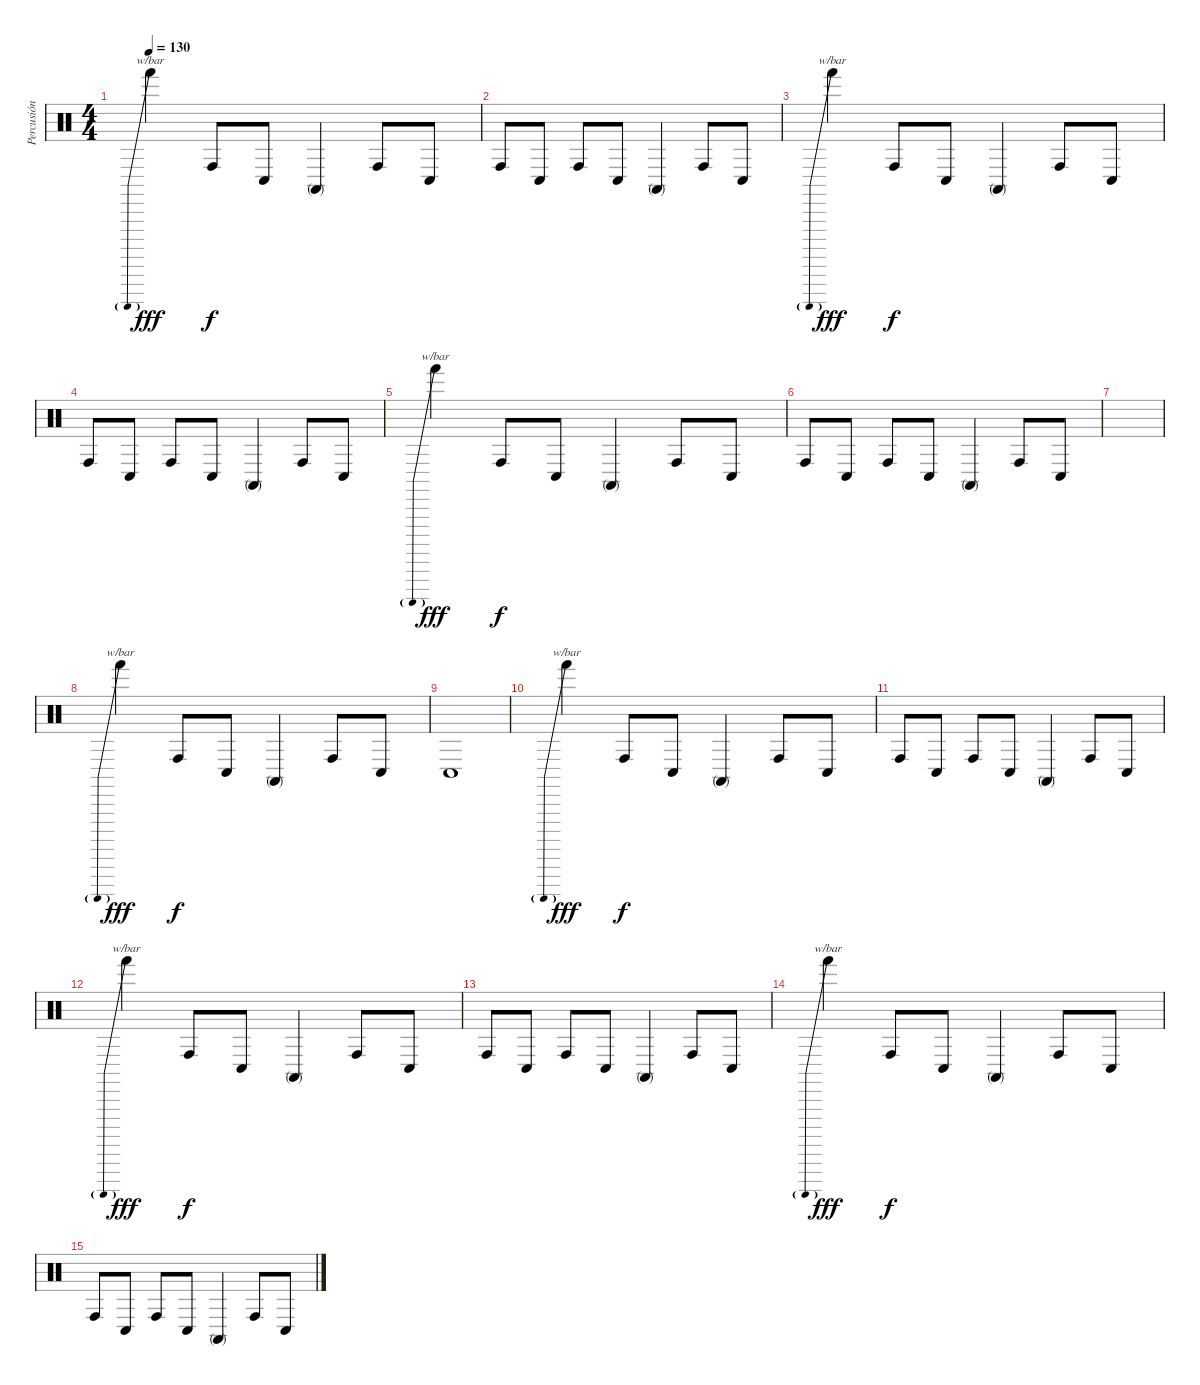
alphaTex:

\track ("Percusión" "Percusión") {instrument percussion}
\staff {score}
\articulation defaults
\ts (4 4)
\tempo 130
\clef neutral
\ks c "Hand (hit)".4{tbe (predive default 0 -8 60 -8) dy fff} "Conga high (hit)".8{dy f} "Conga low (hit)".8 "Conga high (mute)".4 "Conga high (hit)".8 "Conga low (hit)".8
|
"Conga high (hit)".8 "Conga low (hit)".8 "Conga high (hit)".8 "Conga low (hit)".8 "Conga high (mute)".4 "Conga high (hit)".8 "Conga low (hit)".8 |
"Hand (hit)".4{tbe (predive default 0 -8 60 -8) dy fff} "Conga high (hit)".8{dy f} "Conga low (hit)".8 "Conga high (mute)".4 "Conga high (hit)".8 "Conga low (hit)".8 |
"Conga high (hit)".8 "Conga low (hit)".8 "Conga high (hit)".8 "Conga low (hit)".8 "Conga high (mute)".4 "Conga high (hit)".8 "Conga low (hit)".8 |
"Hand (hit)".4{tbe (predive default 0 -8 60 -8) dy fff} "Conga high (hit)".8{dy f} "Conga low (hit)".8 "Conga high (mute)".4 "Conga high (hit)".8 "Conga low (hit)".8 |
"Conga high (hit)".8 "Conga low (hit)".8 "Conga high (hit)".8 "Conga low (hit)".8 "Conga high (mute)".4 "Conga high (hit)".8 "Conga low (hit)".8 |
|
"Hand (hit)".4{tbe (predive default 0 -8 60 -8) dy fff} "Conga high (hit)".8{dy f} "Conga low (hit)".8 "Conga high (mute)".4 "Conga high (hit)".8 "Conga low (hit)".8 |
"Conga low (hit)".1 |
"Hand (hit)".4{tbe (predive default 0 -8 60 -8) dy fff} "Conga high (hit)".8{dy f} "Conga low (hit)".8 "Conga high (mute)".4 "Conga high (hit)".8 "Conga low (hit)".8 |
"Conga high (hit)".8 "Conga low (hit)".8 "Conga high (hit)".8 "Conga low (hit)".8 "Conga high (mute)".4 "Conga high (hit)".8 "Conga low (hit)".8 |
"Hand (hit)".4{tbe (predive default 0 -8 60 -8) dy fff} "Conga high (hit)".8{dy f} "Conga low (hit)".8 "Conga high (mute)".4 "Conga high (hit)".8 "Conga low (hit)".8 |
"Conga high (hit)".8 "Conga low (hit)".8 "Conga high (hit)".8 "Conga low (hit)".8 "Conga high (mute)".4 "Conga high (hit)".8 "Conga low (hit)".8 |
"Hand (hit)".4{tbe (predive default 0 -8 60 -8) dy fff} "Conga high (hit)".8{dy f} "Conga low (hit)".8 "Conga high (mute)".4 "Conga high (hit)".8 "Conga low (hit)".8 |
"Conga high (hit)".8 "Conga low (hit)".8 "Conga high (hit)".8 "Conga low (hit)".8 "Conga high (mute)".4 "Conga high (hit)".8 "Conga low (hit)".8
